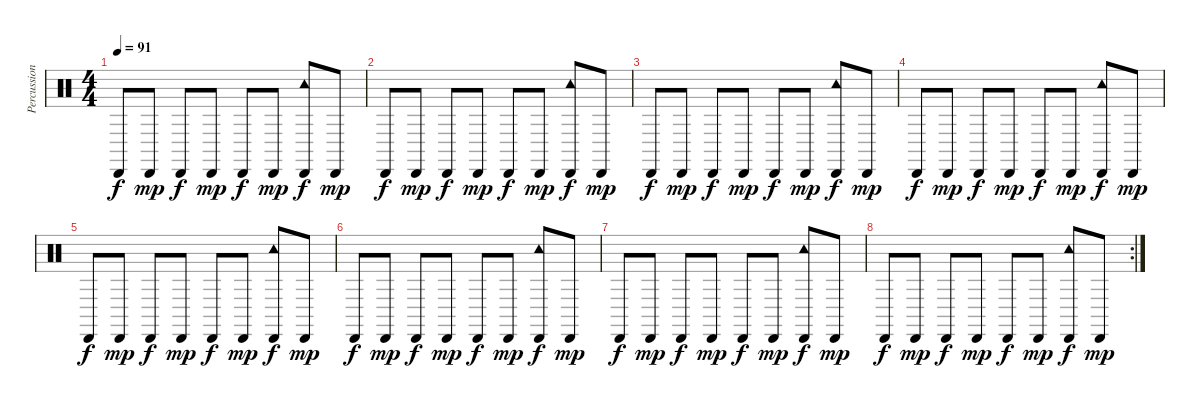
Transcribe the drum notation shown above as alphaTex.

\track ("Percussion" "Percussion") {instrument percussion}
\staff {score}
\articulation defaults
\ts (4 4)
\tempo 91
\clef neutral
\ks c "Cabasa (hit)".8{dy f} "Cabasa (hit)".8{dy mp} "Cabasa (hit)".8{dy f} "Cabasa (hit)".8{dy mp} "Cabasa (hit)".8{dy f} "Cabasa (hit)".8{dy mp}
("Cabasa (hit)" "Tambourine (hit)").8{dy f} "Cabasa (hit)".8{dy mp} |
"Cabasa (hit)".8{dy f} "Cabasa (hit)".8{dy mp} "Cabasa (hit)".8{dy f} "Cabasa (hit)".8{dy mp} "Cabasa (hit)".8{dy f} "Cabasa (hit)".8{dy mp} ("Cabasa (hit)" "Tambourine (hit)").8{dy f} "Cabasa (hit)".8{dy mp} |
"Cabasa (hit)".8{dy f} "Cabasa (hit)".8{dy mp} "Cabasa (hit)".8{dy f} "Cabasa (hit)".8{dy mp} "Cabasa (hit)".8{dy f} "Cabasa (hit)".8{dy mp} ("Cabasa (hit)" "Tambourine (hit)").8{dy f} "Cabasa (hit)".8{dy mp} |
"Cabasa (hit)".8{dy f} "Cabasa (hit)".8{dy mp} "Cabasa (hit)".8{dy f} "Cabasa (hit)".8{dy mp} "Cabasa (hit)".8{dy f} "Cabasa (hit)".8{dy mp} ("Cabasa (hit)" "Tambourine (hit)").8{dy f} "Cabasa (hit)".8{dy mp} |
"Cabasa (hit)".8{dy f} "Cabasa (hit)".8{dy mp} "Cabasa (hit)".8{dy f} "Cabasa (hit)".8{dy mp} "Cabasa (hit)".8{dy f} "Cabasa (hit)".8{dy mp} ("Cabasa (hit)" "Tambourine (hit)").8{dy f} "Cabasa (hit)".8{dy mp} |
"Cabasa (hit)".8{dy f} "Cabasa (hit)".8{dy mp} "Cabasa (hit)".8{dy f} "Cabasa (hit)".8{dy mp} "Cabasa (hit)".8{dy f} "Cabasa (hit)".8{dy mp} ("Cabasa (hit)" "Tambourine (hit)").8{dy f} "Cabasa (hit)".8{dy mp} |
"Cabasa (hit)".8{dy f} "Cabasa (hit)".8{dy mp} "Cabasa (hit)".8{dy f} "Cabasa (hit)".8{dy mp} "Cabasa (hit)".8{dy f} "Cabasa (hit)".8{dy mp} ("Cabasa (hit)" "Tambourine (hit)").8{dy f} "Cabasa (hit)".8{dy mp} |
\rc 2 "Cabasa (hit)".8{dy f} "Cabasa (hit)".8{dy mp} "Cabasa (hit)".8{dy f} "Cabasa (hit)".8{dy mp} "Cabasa (hit)".8{dy f} "Cabasa (hit)".8{dy mp}
("Cabasa (hit)" "Tambourine (hit)").8{dy f} "Cabasa (hit)".8{dy mp}
